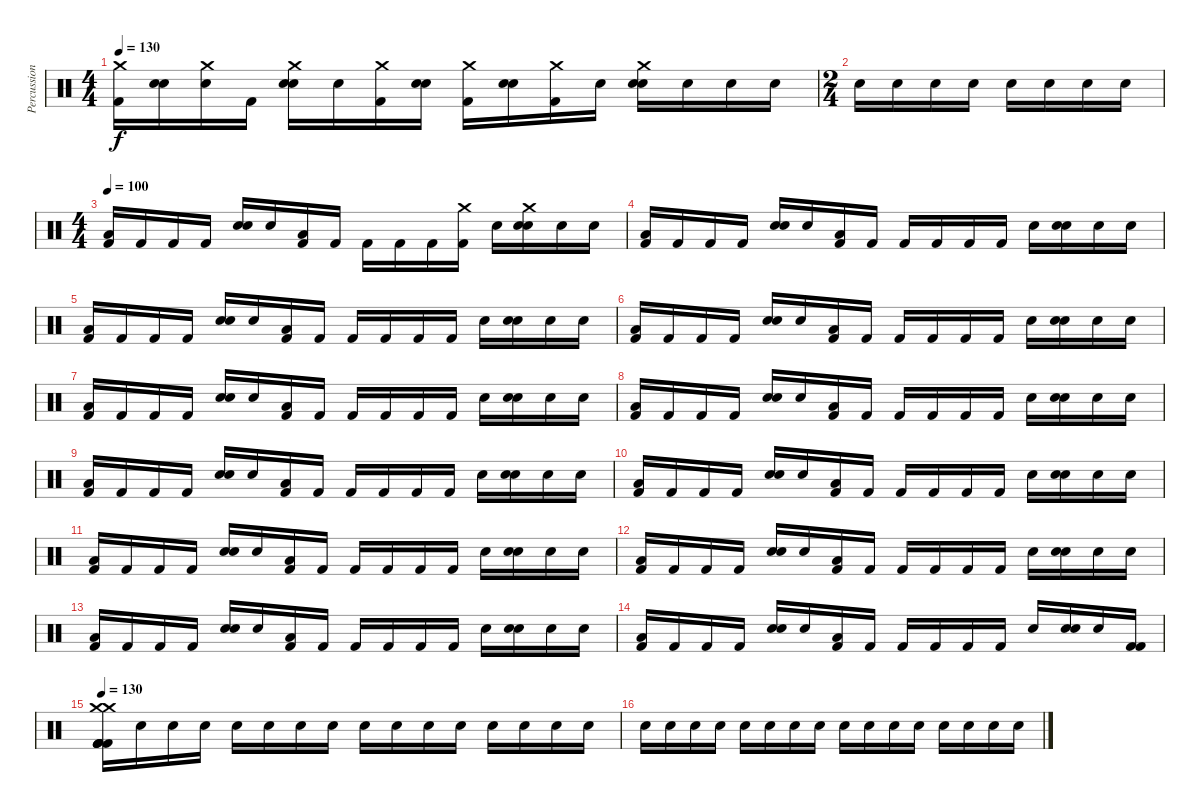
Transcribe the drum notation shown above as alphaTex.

\track ("Percussion" "Percussion") {instrument percussion}
\staff {score}
\articulation defaults
\ts (4 4)
\tempo 130
\clef neutral
\ks c
("Crash medium (hit)" "Kick (hit) 2").16{dy f} ("Electric Snare (hit)" "Snare (hit)").16 ("Crash medium (hit)" "Snare (hit)").16 "Kick (hit) 2".16 ("Electric Snare (hit)" "Crash medium (hit)" "Snare (hit)").16 "Snare (hit)".16 ("Crash medium (hit)" "Kick (hit) 2").16 ("Electric Snare (hit)" "Snare (hit)").16 ("Crash medium (hit)" "Kick (hit) 2").16 ("Electric Snare (hit)" "Snare (hit)").16 ("Crash medium (hit)" "Kick (hit) 2").16 "Snare (hit)".16 ("Electric Snare (hit)" "Crash medium (hit)" "Snare (hit)").16 "Snare (hit)".16 "Snare (hit)".16 "Snare (hit)".16 |
\ts (2 4)
"Snare (hit)".16 "Snare (hit)".16 "Snare (hit)".16 "Snare (hit)".16 "Snare (hit)".16 "Snare (hit)".16 "Snare (hit)".16 "Snare (hit)".16 |
\ts (4 4)
\tempo 100
("Low Floor Tom (hit)" "Kick (hit) 2").16 "Kick (hit) 2".16 "Kick (hit) 2".16 "Kick (hit) 2".16 ("Electric Snare (hit)" "Snare (hit)").16 "Snare (hit)".16 ("Low Floor Tom (hit)" "Kick (hit) 2").16 "Kick (hit) 2".16 "Kick (hit) 2".16 "Kick (hit) 2".16 "Kick (hit) 2".16 ("Crash medium (hit)" "Kick (hit) 2").16 "Snare (hit)".16 ("Crash medium (hit)" "Electric Snare (hit)" "Snare (hit)").16 "Snare (hit)".16 "Snare (hit)".16 |
("Low Floor Tom (hit)" "Kick (hit) 2").16 "Kick (hit) 2".16 "Kick (hit) 2".16 "Kick (hit) 2".16 ("Electric Snare (hit)" "Snare (hit)").16 "Snare (hit)".16 ("Low Floor Tom (hit)" "Kick (hit) 2").16 "Kick (hit) 2".16 "Kick (hit) 2".16 "Kick (hit) 2".16 "Kick (hit) 2".16 "Kick (hit) 2".16 "Snare (hit)".16 ("Electric Snare (hit)" "Snare (hit)").16 "Snare (hit)".16 "Snare (hit)".16 |
("Low Floor Tom (hit)" "Kick (hit) 2").16 "Kick (hit) 2".16 "Kick (hit) 2".16 "Kick (hit) 2".16 ("Electric Snare (hit)" "Snare (hit)").16 "Snare (hit)".16 ("Low Floor Tom (hit)" "Kick (hit) 2").16 "Kick (hit) 2".16 "Kick (hit) 2".16 "Kick (hit) 2".16 "Kick (hit) 2".16 "Kick (hit) 2".16 "Snare (hit)".16 ("Electric Snare (hit)" "Snare (hit)").16 "Snare (hit)".16 "Snare (hit)".16 |
("Low Floor Tom (hit)" "Kick (hit) 2").16 "Kick (hit) 2".16 "Kick (hit) 2".16 "Kick (hit) 2".16 ("Electric Snare (hit)" "Snare (hit)").16 "Snare (hit)".16 ("Low Floor Tom (hit)" "Kick (hit) 2").16 "Kick (hit) 2".16 "Kick (hit) 2".16 "Kick (hit) 2".16 "Kick (hit) 2".16 "Kick (hit) 2".16 "Snare (hit)".16 ("Electric Snare (hit)" "Snare (hit)").16 "Snare (hit)".16 "Snare (hit)".16 |
("Low Floor Tom (hit)" "Kick (hit) 2").16 "Kick (hit) 2".16 "Kick (hit) 2".16 "Kick (hit) 2".16 ("Electric Snare (hit)" "Snare (hit)").16 "Snare (hit)".16 ("Low Floor Tom (hit)" "Kick (hit) 2").16 "Kick (hit) 2".16 "Kick (hit) 2".16 "Kick (hit) 2".16 "Kick (hit) 2".16 "Kick (hit) 2".16 "Snare (hit)".16 ("Electric Snare (hit)" "Snare (hit)").16 "Snare (hit)".16 "Snare (hit)".16 |
("Low Floor Tom (hit)" "Kick (hit) 2").16 "Kick (hit) 2".16 "Kick (hit) 2".16 "Kick (hit) 2".16 ("Electric Snare (hit)" "Snare (hit)").16 "Snare (hit)".16 ("Low Floor Tom (hit)" "Kick (hit) 2").16 "Kick (hit) 2".16 "Kick (hit) 2".16 "Kick (hit) 2".16 "Kick (hit) 2".16 "Kick (hit) 2".16 "Snare (hit)".16 ("Electric Snare (hit)" "Snare (hit)").16 "Snare (hit)".16 "Snare (hit)".16 |
("Low Floor Tom (hit)" "Kick (hit) 2").16 "Kick (hit) 2".16 "Kick (hit) 2".16 "Kick (hit) 2".16 ("Electric Snare (hit)" "Snare (hit)").16 "Snare (hit)".16 ("Low Floor Tom (hit)" "Kick (hit) 2").16 "Kick (hit) 2".16 "Kick (hit) 2".16 "Kick (hit) 2".16 "Kick (hit) 2".16 "Kick (hit) 2".16 "Snare (hit)".16 ("Electric Snare (hit)" "Snare (hit)").16 "Snare (hit)".16 "Snare (hit)".16 |
("Low Floor Tom (hit)" "Kick (hit) 2").16 "Kick (hit) 2".16 "Kick (hit) 2".16 "Kick (hit) 2".16 ("Electric Snare (hit)" "Snare (hit)").16 "Snare (hit)".16 ("Low Floor Tom (hit)" "Kick (hit) 2").16 "Kick (hit) 2".16 "Kick (hit) 2".16 "Kick (hit) 2".16 "Kick (hit) 2".16 "Kick (hit) 2".16 "Snare (hit)".16 ("Electric Snare (hit)" "Snare (hit)").16 "Snare (hit)".16 "Snare (hit)".16 |
("Low Floor Tom (hit)" "Kick (hit) 2").16 "Kick (hit) 2".16 "Kick (hit) 2".16 "Kick (hit) 2".16 ("Electric Snare (hit)" "Snare (hit)").16 "Snare (hit)".16 ("Low Floor Tom (hit)" "Kick (hit) 2").16 "Kick (hit) 2".16 "Kick (hit) 2".16 "Kick (hit) 2".16 "Kick (hit) 2".16 "Kick (hit) 2".16 "Snare (hit)".16 ("Electric Snare (hit)" "Snare (hit)").16 "Snare (hit)".16 "Snare (hit)".16 |
("Low Floor Tom (hit)" "Kick (hit) 2").16 "Kick (hit) 2".16 "Kick (hit) 2".16 "Kick (hit) 2".16 ("Electric Snare (hit)" "Snare (hit)").16 "Snare (hit)".16 ("Low Floor Tom (hit)" "Kick (hit) 2").16 "Kick (hit) 2".16 "Kick (hit) 2".16 "Kick (hit) 2".16 "Kick (hit) 2".16 "Kick (hit) 2".16 "Snare (hit)".16 ("Electric Snare (hit)" "Snare (hit)").16 "Snare (hit)".16 "Snare (hit)".16 |
("Low Floor Tom (hit)" "Kick (hit) 2").16 "Kick (hit) 2".16 "Kick (hit) 2".16 "Kick (hit) 2".16 ("Electric Snare (hit)" "Snare (hit)").16 "Snare (hit)".16 ("Low Floor Tom (hit)" "Kick (hit) 2").16 "Kick (hit) 2".16 "Kick (hit) 2".16 "Kick (hit) 2".16 "Kick (hit) 2".16 "Kick (hit) 2".16 "Snare (hit)".16 ("Electric Snare (hit)" "Snare (hit)").16 "Snare (hit)".16 "Snare (hit)".16 |
("Low Floor Tom (hit)" "Kick (hit) 2").16 "Kick (hit) 2".16 "Kick (hit) 2".16 "Kick (hit) 2".16 ("Electric Snare (hit)" "Snare (hit)").16 "Snare (hit)".16 ("Low Floor Tom (hit)" "Kick (hit) 2").16 "Kick (hit) 2".16 "Kick (hit) 2".16 "Kick (hit) 2".16 "Kick (hit) 2".16 "Kick (hit) 2".16 "Snare (hit)".16 ("Electric Snare (hit)" "Snare (hit)").16 "Snare (hit)".16 ("Kick (hit) 2" "Kick (hit) 2").16 |
\tempo 130
("Crash medium (hit)" "Kick (hit) 2" "Kick (hit) 2" "Kick (hit) 2" "Crash medium (hit)" "Kick (hit) 2").16 "Snare (hit)".16 "Snare (hit)".16 "Snare (hit)".16 "Snare (hit)".16 "Snare (hit)".16 "Snare (hit)".16 "Snare (hit)".16 "Snare (hit)".16 "Snare (hit)".16 "Snare (hit)".16 "Snare (hit)".16 "Snare (hit)".16 "Snare (hit)".16 "Snare (hit)".16 "Snare (hit)".16 |
"Snare (hit)".16 "Snare (hit)".16 "Snare (hit)".16 "Snare (hit)".16 "Snare (hit)".16 "Snare (hit)".16 "Snare (hit)".16 "Snare (hit)".16 "Snare (hit)".16 "Snare (hit)".16 "Snare (hit)".16 "Snare (hit)".16 "Snare (hit)".16 "Snare (hit)".16 "Snare (hit)".16 "Snare (hit)".16
